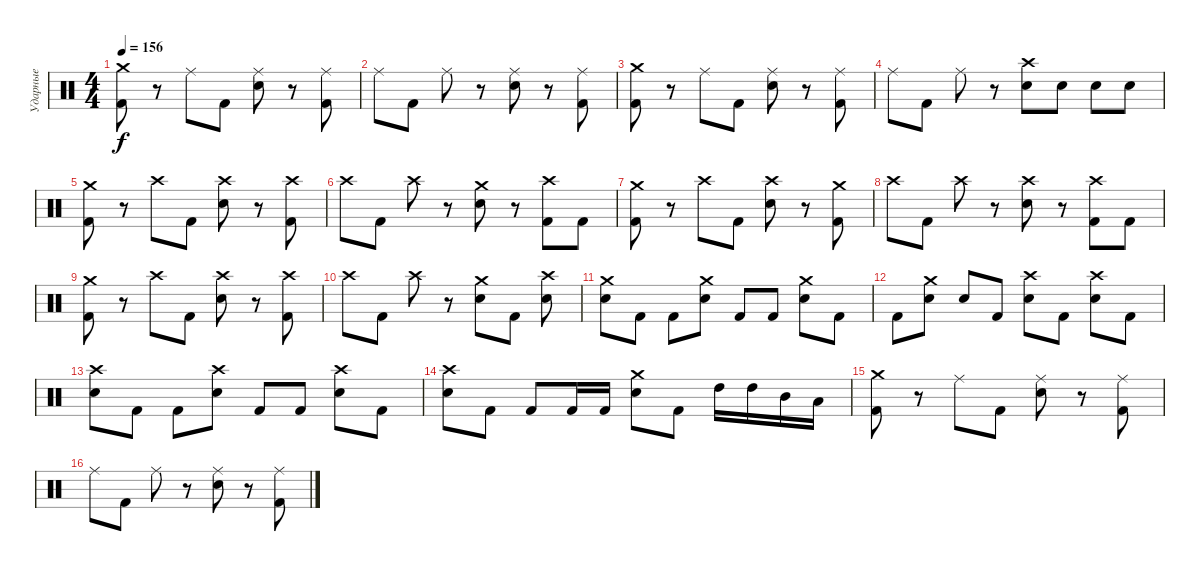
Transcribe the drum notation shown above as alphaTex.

\track ("Ударные" "Ударные") {instrument percussion}
\staff {score}
\articulation defaults
\ts (4 4)
\tempo 156
\clef neutral
\ks c
("Crash medium (hit)" "Kick (hit) 2").8{dy f} r.8 "Ride (middle)".8 "Kick (hit) 2".8 ("Ride (middle)" "Electric Snare (hit)").8 r.8 ("Ride (middle)" "Kick (hit) 2").8 |
"Ride (middle)".8 "Kick (hit) 2".8 "Ride (middle)".8 r.8 ("Ride (middle)" "Electric Snare (hit)").8 r.8 ("Ride (middle)" "Kick (hit) 2").8 |
("Crash medium (hit)" "Kick (hit) 2").8 r.8 "Ride (middle)".8 "Kick (hit) 2".8 ("Ride (middle)" "Electric Snare (hit)").8 r.8 ("Ride (middle)" "Kick (hit) 2").8 |
"Ride (middle)".8 "Kick (hit) 2".8 "Ride (middle)".8 r.8 ("Crash high (hit)" "Electric Snare (hit)").8 "Electric Snare (hit)".8 "Electric Snare (hit)".8 "Electric Snare (hit)".8 |
("Crash medium (hit)" "Kick (hit) 2").8 r.8 "Crash high (hit)".8 "Kick (hit) 2".8 ("Crash high (hit)" "Electric Snare (hit)").8 r.8 ("Crash high (hit)" "Kick (hit) 2").8 |
"Crash high (hit)".8 "Kick (hit) 2".8 "Crash high (hit)".8 r.8 ("Crash medium (hit)" "Electric Snare (hit)").8 r.8 ("Crash high (hit)" "Kick (hit) 2").8 "Kick (hit) 2".8 |
("Crash medium (hit)" "Kick (hit) 2").8 r.8 "Crash high (hit)".8 "Kick (hit) 2".8 ("Crash high (hit)" "Electric Snare (hit)").8 r.8 ("Crash medium (hit)" "Kick (hit) 2").8 |
"Crash high (hit)".8 "Kick (hit) 2".8 "Crash high (hit)".8 r.8 ("Crash high (hit)" "Electric Snare (hit)").8 r.8 ("Crash high (hit)" "Kick (hit) 2").8 "Kick (hit) 2".8 |
("Crash medium (hit)" "Kick (hit) 2").8 r.8 "Crash high (hit)".8 "Kick (hit) 2".8 ("Crash high (hit)" "Electric Snare (hit)").8 r.8 ("Crash high (hit)" "Kick (hit) 2").8 |
"Crash high (hit)".8 "Kick (hit) 2".8 "Crash high (hit)".8 r.8 ("Crash medium (hit)" "Electric Snare (hit)").8 "Kick (hit) 2".8 ("Crash high (hit)" "Electric Snare (hit)").8 |
("Crash medium (hit)" "Electric Snare (hit)").8 "Kick (hit) 2".8 "Kick (hit) 2".8 ("Crash medium (hit)" "Electric Snare (hit)").8 "Kick (hit) 2".8 "Kick (hit) 2".8 ("Crash medium (hit)" "Electric Snare (hit)").8 "Kick (hit) 2".8 |
"Kick (hit) 2".8 ("Crash medium (hit)" "Electric Snare (hit)").8 "Electric Snare (hit)".8 "Kick (hit) 2".8 ("Crash high (hit)" "Electric Snare (hit)").8 "Kick (hit) 2".8 ("Crash high (hit)" "Electric Snare (hit)").8 "Kick (hit) 2".8 |
("Crash high (hit)" "Electric Snare (hit)").8 "Kick (hit) 2".8 "Kick (hit) 2".8 ("Crash high (hit)" "Electric Snare (hit)").8 "Kick (hit) 2".8 "Kick (hit) 2".8 ("Crash high (hit)" "Electric Snare (hit)").8 "Kick (hit) 2".8 |
("Crash high (hit)" "Electric Snare (hit)").8 "Kick (hit) 2".8 "Kick (hit) 2".8 "Kick (hit) 2".16 "Kick (hit) 2".16 ("Crash medium (hit)" "Electric Snare (hit)").8 "Kick (hit) 2".8 "High Tom (hit)".16 "High Tom (hit)".16 "Mid Tom (hit)".16 "Low Tom (hit)".16 |
("Crash medium (hit)" "Kick (hit) 2").8 r.8 "Ride (middle)".8 "Kick (hit) 2".8 ("Ride (middle)" "Electric Snare (hit)").8 r.8 ("Ride (middle)" "Kick (hit) 2").8 |
"Ride (middle)".8 "Kick (hit) 2".8 "Ride (middle)".8 r.8 ("Ride (middle)" "Electric Snare (hit)").8 r.8 ("Ride (middle)" "Kick (hit) 2").8
